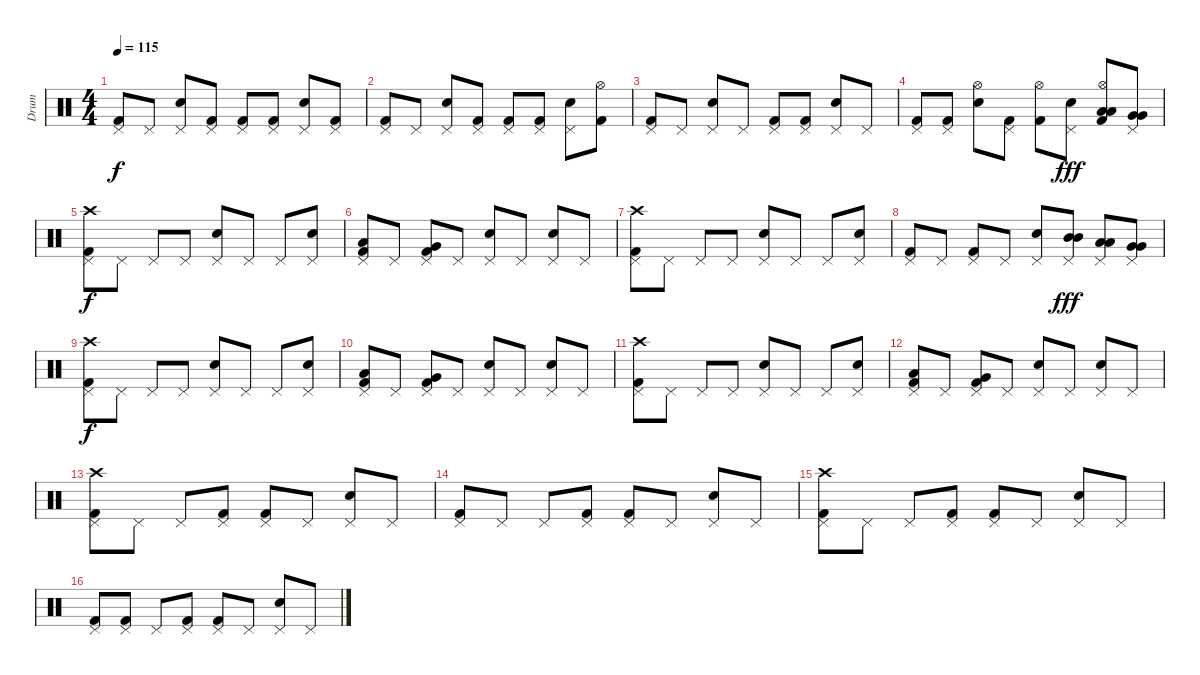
\track ("Drum" "Drum") {instrument percussion}
\staff {score}
\articulation defaults
\ts (4 4)
\tempo 115
\clef neutral
\ks c
("Pedal Hi-Hat (hit)" "Kick (hit) 2").8{dy f} "Pedal Hi-Hat (hit)".8 ("Pedal Hi-Hat (hit)" "Electric Snare (hit)").8 ("Pedal Hi-Hat (hit)" "Kick (hit) 2").8 ("Pedal Hi-Hat (hit)" "Kick (hit) 2").8 ("Pedal Hi-Hat (hit)" "Kick (hit) 2").8 ("Pedal Hi-Hat (hit)" "Electric Snare (hit)").8 ("Pedal Hi-Hat (hit)" "Kick (hit) 2").8 |
("Pedal Hi-Hat (hit)" "Kick (hit) 2").8 "Pedal Hi-Hat (hit)".8 ("Pedal Hi-Hat (hit)" "Electric Snare (hit)").8 ("Pedal Hi-Hat (hit)" "Kick (hit) 2").8 ("Pedal Hi-Hat (hit)" "Kick (hit) 2").8 ("Pedal Hi-Hat (hit)" "Kick (hit) 2").8 ("Pedal Hi-Hat (hit)" "Electric Snare (hit)").8 ("Hi-Hat (open)" "Kick (hit) 2").8 |
("Pedal Hi-Hat (hit)" "Kick (hit) 2").8 "Pedal Hi-Hat (hit)".8 ("Pedal Hi-Hat (hit)" "Electric Snare (hit)").8 "Pedal Hi-Hat (hit)".8 ("Pedal Hi-Hat (hit)" "Kick (hit) 2").8 ("Pedal Hi-Hat (hit)" "Kick (hit) 2").8 ("Pedal Hi-Hat (hit)" "Electric Snare (hit)").8 "Pedal Hi-Hat (hit)".8 |
("Pedal Hi-Hat (hit)" "Kick (hit) 2").8 ("Pedal Hi-Hat (hit)" "Kick (hit) 2").8 ("Hi-Hat (open)" "Electric Snare (hit)").8 ("Pedal Hi-Hat (hit)" "Kick (hit) 2").8 ("Hi-Hat (open)" "Kick (hit) 2").8 ("Pedal Hi-Hat (hit)" "Electric Snare (hit)").8{dy fff} ("Hi-Hat (open)" "Low Tom (hit)" "Low Tom (hit)" "Kick (hit) 2").8 ("Pedal Hi-Hat (hit)" "Very Low Tom (hit)" "Very Low Tom (hit)").8 |
("Pedal Hi-Hat (hit)" "Crash high (hit)" "Kick (hit) 2").8{dy f} "Pedal Hi-Hat (hit)".8 "Pedal Hi-Hat (hit)".8 "Pedal Hi-Hat (hit)".8 ("Pedal Hi-Hat (hit)" "Electric Snare (hit)").8 "Pedal Hi-Hat (hit)".8 "Pedal Hi-Hat (hit)".8 ("Pedal Hi-Hat (hit)" "Electric Snare (hit)").8 |
("Pedal Hi-Hat (hit)" "Low Tom (hit)" "Kick (hit) 2").8 "Pedal Hi-Hat (hit)".8 ("Pedal Hi-Hat (hit)" "Very Low Tom (hit)" "Kick (hit) 2").8 "Pedal Hi-Hat (hit)".8 ("Pedal Hi-Hat (hit)" "Electric Snare (hit)").8 "Pedal Hi-Hat (hit)".8 ("Pedal Hi-Hat (hit)" "Electric Snare (hit)").8 "Pedal Hi-Hat (hit)".8 |
("Pedal Hi-Hat (hit)" "Crash high (hit)" "Kick (hit) 2").8 "Pedal Hi-Hat (hit)".8 "Pedal Hi-Hat (hit)".8 "Pedal Hi-Hat (hit)".8 ("Pedal Hi-Hat (hit)" "Electric Snare (hit)").8 "Pedal Hi-Hat (hit)".8 "Pedal Hi-Hat (hit)".8 ("Pedal Hi-Hat (hit)" "Electric Snare (hit)").8 |
("Pedal Hi-Hat (hit)" "Kick (hit) 2").8 "Pedal Hi-Hat (hit)".8 ("Pedal Hi-Hat (hit)" "Kick (hit) 2").8 "Pedal Hi-Hat (hit)".8 ("Pedal Hi-Hat (hit)" "Electric Snare (hit)").8 ("Pedal Hi-Hat (hit)" "Mid Tom (hit)" "Mid Tom (hit)").8{dy fff} ("Pedal Hi-Hat (hit)" "Low Tom (hit)" "Low Tom (hit)").8 ("Pedal Hi-Hat (hit)" "Very Low Tom (hit)" "Very Low Tom (hit)").8 |
("Pedal Hi-Hat (hit)" "Crash high (hit)" "Kick (hit) 2").8{dy f} "Pedal Hi-Hat (hit)".8 "Pedal Hi-Hat (hit)".8 "Pedal Hi-Hat (hit)".8 ("Pedal Hi-Hat (hit)" "Electric Snare (hit)").8 "Pedal Hi-Hat (hit)".8 "Pedal Hi-Hat (hit)".8 ("Pedal Hi-Hat (hit)" "Electric Snare (hit)").8 |
("Pedal Hi-Hat (hit)" "Low Tom (hit)" "Kick (hit) 2").8 "Pedal Hi-Hat (hit)".8 ("Pedal Hi-Hat (hit)" "Very Low Tom (hit)" "Kick (hit) 2").8 "Pedal Hi-Hat (hit)".8 ("Pedal Hi-Hat (hit)" "Electric Snare (hit)").8 "Pedal Hi-Hat (hit)".8 ("Pedal Hi-Hat (hit)" "Electric Snare (hit)").8 "Pedal Hi-Hat (hit)".8 |
("Pedal Hi-Hat (hit)" "Crash high (hit)" "Kick (hit) 2").8 "Pedal Hi-Hat (hit)".8 "Pedal Hi-Hat (hit)".8 "Pedal Hi-Hat (hit)".8 ("Pedal Hi-Hat (hit)" "Electric Snare (hit)").8 "Pedal Hi-Hat (hit)".8 "Pedal Hi-Hat (hit)".8 ("Pedal Hi-Hat (hit)" "Electric Snare (hit)").8 |
("Pedal Hi-Hat (hit)" "Low Tom (hit)" "Kick (hit) 2").8 "Pedal Hi-Hat (hit)".8 ("Pedal Hi-Hat (hit)" "Very Low Tom (hit)" "Kick (hit) 2").8 "Pedal Hi-Hat (hit)".8 ("Pedal Hi-Hat (hit)" "Electric Snare (hit)").8 "Pedal Hi-Hat (hit)".8 ("Pedal Hi-Hat (hit)" "Electric Snare (hit)").8 "Pedal Hi-Hat (hit)".8 |
("Pedal Hi-Hat (hit)" "Crash high (hit)" "Kick (hit) 2").8 "Pedal Hi-Hat (hit)".8 "Pedal Hi-Hat (hit)".8 ("Pedal Hi-Hat (hit)" "Kick (hit) 2").8 ("Pedal Hi-Hat (hit)" "Kick (hit) 2").8 "Pedal Hi-Hat (hit)".8 ("Pedal Hi-Hat (hit)" "Electric Snare (hit)").8 "Pedal Hi-Hat (hit)".8 |
("Pedal Hi-Hat (hit)" "Kick (hit) 2").8 "Pedal Hi-Hat (hit)".8 "Pedal Hi-Hat (hit)".8 ("Pedal Hi-Hat (hit)" "Kick (hit) 2").8 ("Pedal Hi-Hat (hit)" "Kick (hit) 2").8 "Pedal Hi-Hat (hit)".8 ("Pedal Hi-Hat (hit)" "Electric Snare (hit)").8 "Pedal Hi-Hat (hit)".8 |
("Pedal Hi-Hat (hit)" "Crash high (hit)" "Kick (hit) 2").8 "Pedal Hi-Hat (hit)".8 "Pedal Hi-Hat (hit)".8 ("Pedal Hi-Hat (hit)" "Kick (hit) 2").8 ("Pedal Hi-Hat (hit)" "Kick (hit) 2").8 "Pedal Hi-Hat (hit)".8 ("Pedal Hi-Hat (hit)" "Electric Snare (hit)").8 "Pedal Hi-Hat (hit)".8 |
("Pedal Hi-Hat (hit)" "Kick (hit) 2").8 ("Pedal Hi-Hat (hit)" "Kick (hit) 2").8 "Pedal Hi-Hat (hit)".8 ("Pedal Hi-Hat (hit)" "Kick (hit) 2").8 ("Pedal Hi-Hat (hit)" "Kick (hit) 2").8 "Pedal Hi-Hat (hit)".8 ("Pedal Hi-Hat (hit)" "Electric Snare (hit)").8 "Pedal Hi-Hat (hit)".8
